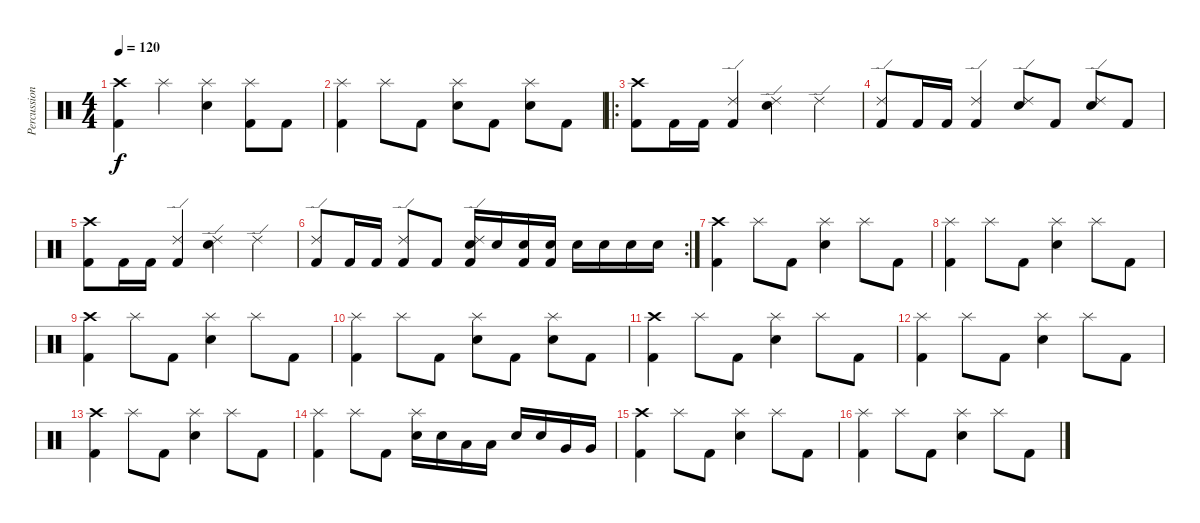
\track ("Percussion" "Percussion") {instrument percussion}
\staff {score}
\articulation defaults
\ts (4 4)
\tempo 120
\clef neutral
\ks c
("Crash high (hit)" "Kick (hit) 2").4{dy f} "Splash (hit)".4 ("Splash (hit)" "Electric Snare (hit)").4 ("Splash (hit)" "Kick (hit) 2").8 "Kick (hit) 2".8 |
("Splash (hit)" "Kick (hit) 2").4 "Splash (hit)".8 "Kick (hit) 2".8 ("Splash (hit)" "Electric Snare (hit)").8 "Kick (hit) 2".8 ("Splash (hit)" "Electric Snare (hit)").8 "Kick (hit) 2".8 |
\ro
("Crash high (hit)" "Kick (hit) 2").8 "Kick (hit) 2".16 "Kick (hit) 2".16 ("Ride (edge) 2" "Kick (hit) 2").4 ("Ride (edge) 2" "Electric Snare (hit)").4 "Ride (edge) 2".4 |
("Ride (edge) 2" "Kick (hit) 2").8 "Kick (hit) 2".16 "Kick (hit) 2".16 ("Ride (edge) 2" "Kick (hit) 2").4 ("Ride (edge) 2" "Electric Snare (hit)").8 "Kick (hit) 2".8 ("Ride (edge) 2" "Electric Snare (hit)").8 "Kick (hit) 2".8 |
("Crash high (hit)" "Kick (hit) 2").8 "Kick (hit) 2".16 "Kick (hit) 2".16 ("Ride (edge) 2" "Kick (hit) 2").4 ("Ride (edge) 2" "Electric Snare (hit)").4 "Ride (edge) 2".4 |
\rc 2
("Ride (edge) 2" "Kick (hit) 2").8 "Kick (hit) 2".16 "Kick (hit) 2".16 ("Ride (edge) 2" "Kick (hit) 2").8 "Kick (hit) 2".8 ("Ride (edge) 2" "Electric Snare (hit)" "Kick (hit) 2").16 "Electric Snare (hit)".16 ("Electric Snare (hit)" "Kick (hit) 2").16 ("Electric Snare (hit)" "Kick (hit) 2").16 "Electric Snare (hit)".16 "Electric Snare (hit)".16 "Electric Snare (hit)".16 "Electric Snare (hit)".16 |
("Crash high (hit)" "Kick (hit) 2").4 "Splash (hit)".8 "Kick (hit) 2".8 ("Splash (hit)" "Electric Snare (hit)").4 "Splash (hit)".8 "Kick (hit) 2".8 |
("Splash (hit)" "Kick (hit) 2").4 "Splash (hit)".8 "Kick (hit) 2".8 ("Splash (hit)" "Electric Snare (hit)").4 "Splash (hit)".8 "Kick (hit) 2".8 |
("Crash high (hit)" "Kick (hit) 2").4 "Splash (hit)".8 "Kick (hit) 2".8 ("Splash (hit)" "Electric Snare (hit)").4 "Splash (hit)".8 "Kick (hit) 2".8 |
("Splash (hit)" "Kick (hit) 2").4 "Splash (hit)".8 "Kick (hit) 2".8 ("Splash (hit)" "Electric Snare (hit)").8 "Kick (hit) 2".8 ("Splash (hit)" "Electric Snare (hit)").8 "Kick (hit) 2".8 |
("Crash high (hit)" "Kick (hit) 2").4 "Splash (hit)".8 "Kick (hit) 2".8 ("Splash (hit)" "Electric Snare (hit)").4 "Splash (hit)".8 "Kick (hit) 2".8 |
("Splash (hit)" "Kick (hit) 2").4 "Splash (hit)".8 "Kick (hit) 2".8 ("Splash (hit)" "Electric Snare (hit)").4 "Splash (hit)".8 "Kick (hit) 2".8 |
("Crash high (hit)" "Kick (hit) 2").4 "Splash (hit)".8 "Kick (hit) 2".8 ("Splash (hit)" "Electric Snare (hit)").4 "Splash (hit)".8 "Kick (hit) 2".8 |
("Splash (hit)" "Kick (hit) 2").4 "Splash (hit)".8 "Kick (hit) 2".8 ("Splash (hit)" "Electric Snare (hit)").16 "Electric Snare (hit)".16 "Low Tom (hit)".16 "Low Tom (hit)".16 "Electric Snare (hit)".16 "Electric Snare (hit)".16 "Very Low Tom (hit)".16 "Very Low Tom (hit)".16 |
("Crash high (hit)" "Kick (hit) 2").4 "Splash (hit)".8 "Kick (hit) 2".8 ("Splash (hit)" "Electric Snare (hit)").4 "Splash (hit)".8 "Kick (hit) 2".8 |
("Splash (hit)" "Kick (hit) 2").4 "Splash (hit)".8 "Kick (hit) 2".8 ("Splash (hit)" "Electric Snare (hit)").4 "Splash (hit)".8 "Kick (hit) 2".8
